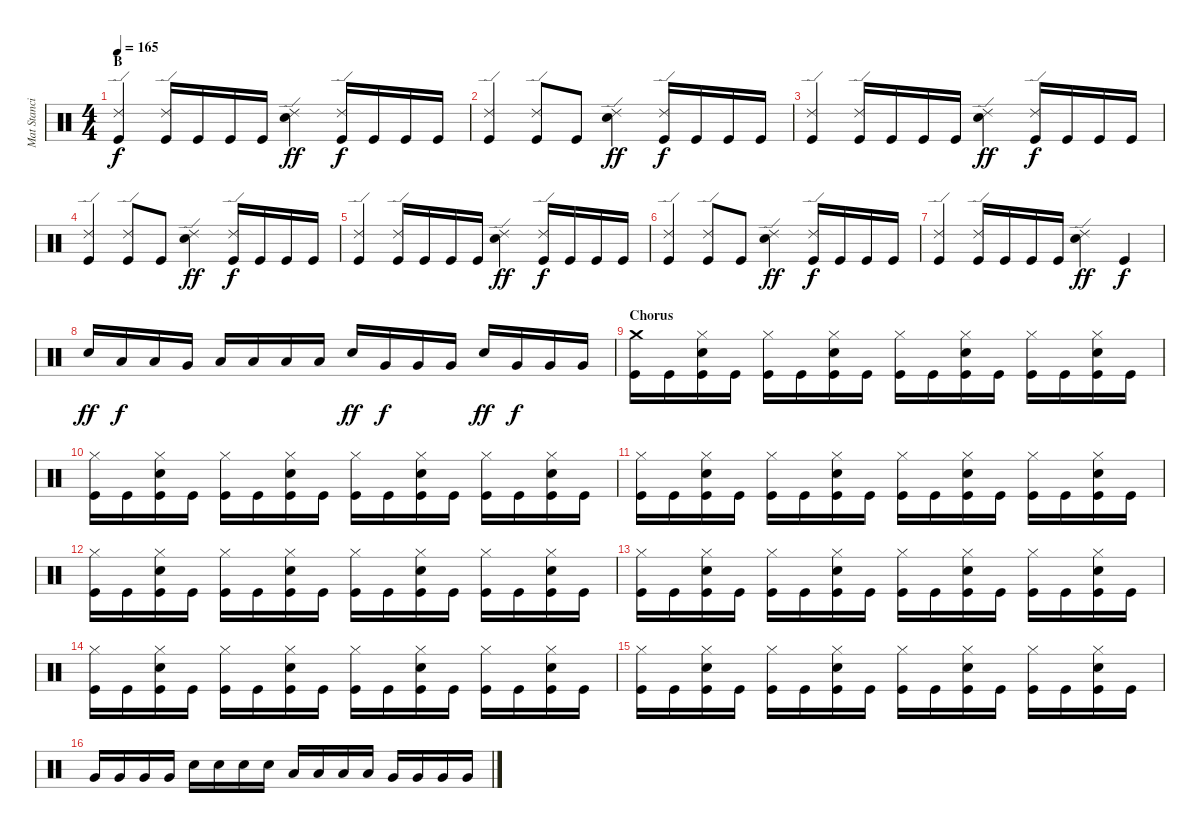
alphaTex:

\track ("Mat Stancioiu (Drums)" "Mat Stanci") {instrument percussion}
\staff {score}
\articulation defaults
\ts (4 4)
\section ("" "B")
\tempo 165
\clef neutral
\ks c
("Ride (edge) 2" "Kick (hit)").4{dy f} ("Ride (edge) 2" "Kick (hit)").16 "Kick (hit)".16 "Kick (hit)".16 "Kick (hit)".16 ("Ride (edge) 2" "Electric Snare (hit)").4{dy ff} ("Ride (edge) 2" "Kick (hit)").16{dy f} "Kick (hit)".16 "Kick (hit)".16 "Kick (hit)".16 |
("Ride (edge) 2" "Kick (hit)").4 ("Ride (edge) 2" "Kick (hit)").8 "Kick (hit)".8 ("Ride (edge) 2" "Electric Snare (hit)").4{dy ff} ("Ride (edge) 2" "Kick (hit)").16{dy f} "Kick (hit)".16 "Kick (hit)".16 "Kick (hit)".16 |
("Ride (edge) 2" "Kick (hit)").4 ("Ride (edge) 2" "Kick (hit)").16 "Kick (hit)".16 "Kick (hit)".16 "Kick (hit)".16 ("Ride (edge) 2" "Electric Snare (hit)").4{dy ff} ("Ride (edge) 2" "Kick (hit)").16{dy f} "Kick (hit)".16 "Kick (hit)".16 "Kick (hit)".16 |
("Ride (edge) 2" "Kick (hit)").4 ("Ride (edge) 2" "Kick (hit)").8 "Kick (hit)".8 ("Ride (edge) 2" "Electric Snare (hit)").4{dy ff} ("Ride (edge) 2" "Kick (hit)").16{dy f} "Kick (hit)".16 "Kick (hit)".16 "Kick (hit)".16 |
("Ride (edge) 2" "Kick (hit)").4 ("Ride (edge) 2" "Kick (hit)").16 "Kick (hit)".16 "Kick (hit)".16 "Kick (hit)".16 ("Ride (edge) 2" "Electric Snare (hit)").4{dy ff} ("Ride (edge) 2" "Kick (hit)").16{dy f} "Kick (hit)".16 "Kick (hit)".16 "Kick (hit)".16 |
("Ride (edge) 2" "Kick (hit)").4 ("Ride (edge) 2" "Kick (hit)").8 "Kick (hit)".8 ("Ride (edge) 2" "Electric Snare (hit)").4{dy ff} ("Ride (edge) 2" "Kick (hit)").16{dy f} "Kick (hit)".16 "Kick (hit)".16 "Kick (hit)".16 |
("Ride (edge) 2" "Kick (hit)").4 ("Ride (edge) 2" "Kick (hit)").16 "Kick (hit)".16 "Kick (hit)".16 "Kick (hit)".16 ("Ride (edge) 2" "Electric Snare (hit)").4{dy ff} "Kick (hit)".4{dy f} |
"Electric Snare (hit)".16{dy ff} "Low Tom (hit)".16{dy f} "Low Tom (hit)".16 "Very Low Tom (hit)".16 "Low Floor Tom (hit)".16 "Low Floor Tom (hit)".16 "Low Floor Tom (hit)".16 "Low Floor Tom (hit)".16 "Electric Snare (hit)".16{dy ff} "Very Low Tom (hit)".16{dy f} "Very Low Tom (hit)".16 "Very Low Tom (hit)".16 "Electric Snare (hit)".16{dy ff} "Very Low Tom (hit)".16{dy f} "Very Low Tom (hit)".16 "Very Low Tom (hit)".16 |
\section ("" "Chorus")
("Crash medium (hit)" "Kick (hit)").16 "Kick (hit)".16 ("Hi-Hat (closed)" "Electric Snare (hit)" "Kick (hit)").16 "Kick (hit)".16 ("Hi-Hat (closed)" "Kick (hit)").16 "Kick (hit)".16 ("Hi-Hat (closed)" "Electric Snare (hit)" "Kick (hit)").16 "Kick (hit)".16 ("Hi-Hat (closed)" "Kick (hit)").16 "Kick (hit)".16 ("Hi-Hat (closed)" "Electric Snare (hit)" "Kick (hit)").16 "Kick (hit)".16 ("Hi-Hat (closed)" "Kick (hit)").16 "Kick (hit)".16 ("Hi-Hat (closed)" "Electric Snare (hit)" "Kick (hit)").16 "Kick (hit)".16 |
("Hi-Hat (closed)" "Kick (hit)").16 "Kick (hit)".16 ("Hi-Hat (closed)" "Electric Snare (hit)" "Kick (hit)").16 "Kick (hit)".16 ("Hi-Hat (closed)" "Kick (hit)").16 "Kick (hit)".16 ("Hi-Hat (closed)" "Electric Snare (hit)" "Kick (hit)").16 "Kick (hit)".16 ("Hi-Hat (closed)" "Kick (hit)").16 "Kick (hit)".16 ("Hi-Hat (closed)" "Electric Snare (hit)" "Kick (hit)").16 "Kick (hit)".16 ("Hi-Hat (closed)" "Kick (hit)").16 "Kick (hit)".16 ("Hi-Hat (closed)" "Electric Snare (hit)" "Kick (hit)").16 "Kick (hit)".16 |
("Hi-Hat (closed)" "Kick (hit)").16 "Kick (hit)".16 ("Hi-Hat (closed)" "Electric Snare (hit)" "Kick (hit)").16 "Kick (hit)".16 ("Hi-Hat (closed)" "Kick (hit)").16 "Kick (hit)".16 ("Hi-Hat (closed)" "Electric Snare (hit)" "Kick (hit)").16 "Kick (hit)".16 ("Hi-Hat (closed)" "Kick (hit)").16 "Kick (hit)".16 ("Hi-Hat (closed)" "Electric Snare (hit)" "Kick (hit)").16 "Kick (hit)".16 ("Hi-Hat (closed)" "Kick (hit)").16 "Kick (hit)".16 ("Hi-Hat (closed)" "Electric Snare (hit)" "Kick (hit)").16 "Kick (hit)".16 |
("Hi-Hat (closed)" "Kick (hit)").16 "Kick (hit)".16 ("Hi-Hat (closed)" "Electric Snare (hit)" "Kick (hit)").16 "Kick (hit)".16 ("Hi-Hat (closed)" "Kick (hit)").16 "Kick (hit)".16 ("Hi-Hat (closed)" "Electric Snare (hit)" "Kick (hit)").16 "Kick (hit)".16 ("Hi-Hat (closed)" "Kick (hit)").16 "Kick (hit)".16 ("Hi-Hat (closed)" "Electric Snare (hit)" "Kick (hit)").16 "Kick (hit)".16 ("Hi-Hat (closed)" "Kick (hit)").16 "Kick (hit)".16 ("Hi-Hat (closed)" "Electric Snare (hit)" "Kick (hit)").16 "Kick (hit)".16 |
("Hi-Hat (closed)" "Kick (hit)").16 "Kick (hit)".16 ("Hi-Hat (closed)" "Electric Snare (hit)" "Kick (hit)").16 "Kick (hit)".16 ("Hi-Hat (closed)" "Kick (hit)").16 "Kick (hit)".16 ("Hi-Hat (closed)" "Electric Snare (hit)" "Kick (hit)").16 "Kick (hit)".16 ("Hi-Hat (closed)" "Kick (hit)").16 "Kick (hit)".16 ("Hi-Hat (closed)" "Electric Snare (hit)" "Kick (hit)").16 "Kick (hit)".16 ("Hi-Hat (closed)" "Kick (hit)").16 "Kick (hit)".16 ("Hi-Hat (closed)" "Electric Snare (hit)" "Kick (hit)").16 "Kick (hit)".16 |
("Hi-Hat (closed)" "Kick (hit)").16 "Kick (hit)".16 ("Hi-Hat (closed)" "Electric Snare (hit)" "Kick (hit)").16 "Kick (hit)".16 ("Hi-Hat (closed)" "Kick (hit)").16 "Kick (hit)".16 ("Hi-Hat (closed)" "Electric Snare (hit)" "Kick (hit)").16 "Kick (hit)".16 ("Hi-Hat (closed)" "Kick (hit)").16 "Kick (hit)".16 ("Hi-Hat (closed)" "Electric Snare (hit)" "Kick (hit)").16 "Kick (hit)".16 ("Hi-Hat (closed)" "Kick (hit)").16 "Kick (hit)".16 ("Hi-Hat (closed)" "Electric Snare (hit)" "Kick (hit)").16 "Kick (hit)".16 |
("Hi-Hat (closed)" "Kick (hit)").16 "Kick (hit)".16 ("Hi-Hat (closed)" "Electric Snare (hit)" "Kick (hit)").16 "Kick (hit)".16 ("Hi-Hat (closed)" "Kick (hit)").16 "Kick (hit)".16 ("Hi-Hat (closed)" "Electric Snare (hit)" "Kick (hit)").16 "Kick (hit)".16 ("Hi-Hat (closed)" "Kick (hit)").16 "Kick (hit)".16 ("Hi-Hat (closed)" "Electric Snare (hit)" "Kick (hit)").16 "Kick (hit)".16 ("Hi-Hat (closed)" "Kick (hit)").16 "Kick (hit)".16 ("Hi-Hat (closed)" "Electric Snare (hit)" "Kick (hit)").16 "Kick (hit)".16 |
"Very Low Tom (hit)".16 "Very Low Tom (hit)".16 "Very Low Tom (hit)".16 "Very Low Tom (hit)".16 "Electric Snare (hit)".16 "Electric Snare (hit)".16 "Electric Snare (hit)".16 "Electric Snare (hit)".16 "Low Tom (hit)".16 "Low Tom (hit)".16 "Low Tom (hit)".16 "Low Tom (hit)".16 "Very Low Tom (hit)".16 "Very Low Tom (hit)".16 "Very Low Tom (hit)".16 "Very Low Tom (hit)".16
